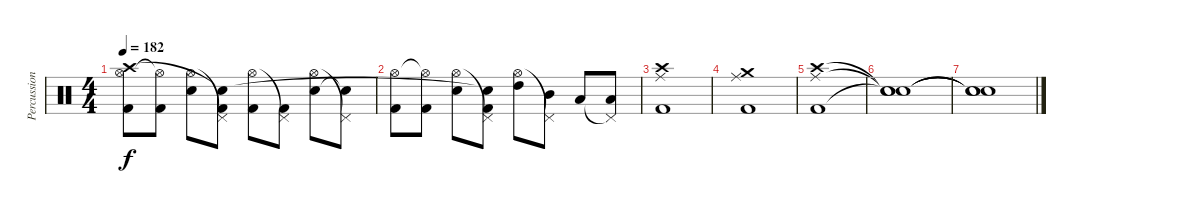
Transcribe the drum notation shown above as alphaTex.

\track ("Percussion" "Percussion") {instrument percussion}
\staff {score}
\articulation defaults
\ts (4 4)
\tempo 182
\clef neutral
\ks c
("Hi-Hat (open)" "Kick (hit) 2" "Crash high (hit)").8{dy f} ("Hi-Hat (open)"{t} "Kick (hit) 2").8 ("Hi-Hat (open)" "Electric Snare (hit)").8 ("Pedal Hi-Hat (hit)"{t} "Kick (hit) 2" "Snare (hit)"{t}).8 ("Hi-Hat (open)" "Kick (hit) 2").8 ("Pedal Hi-Hat (hit)"{t} "Kick (hit) 2").8 ("Hi-Hat (open)" "Electric Snare (hit)").8 ("Pedal Hi-Hat (hit)"{t} "Snare (hit)"{t}).8 |
("Hi-Hat (open)" "Kick (hit) 2").8 ("Hi-Hat (open)"{t} "Kick (hit) 2").8 ("Hi-Hat (open)" "Electric Snare (hit)").8 ("Pedal Hi-Hat (hit)"{t} "Kick (hit) 2" "Snare (hit)"{t}).8 ("Hi-Hat (open)" "High Tom (hit)").8 ("Pedal Hi-Hat (hit)"{t} "Mid Tom (hit)").8 "Low Tom (hit)".8 ("Pedal Hi-Hat (hit)"{t} "Low Floor Tom (hit)").8 |
("Kick (hit) 2" "Ride (middle)" "Crash high (hit)").1 |
("Kick (hit) 2" "Ride (middle)" "Crash medium (hit)").1 |
("Kick (hit) 2" "Ride (middle)" "Crash high (hit)").1 |
("Snare (hit)"{t} "Snare (hit)"{t} "Snare (hit)"{t}).1 |
("Snare (hit)"{t} "Snare (hit)"{t} "Snare (hit)"{t}).1
